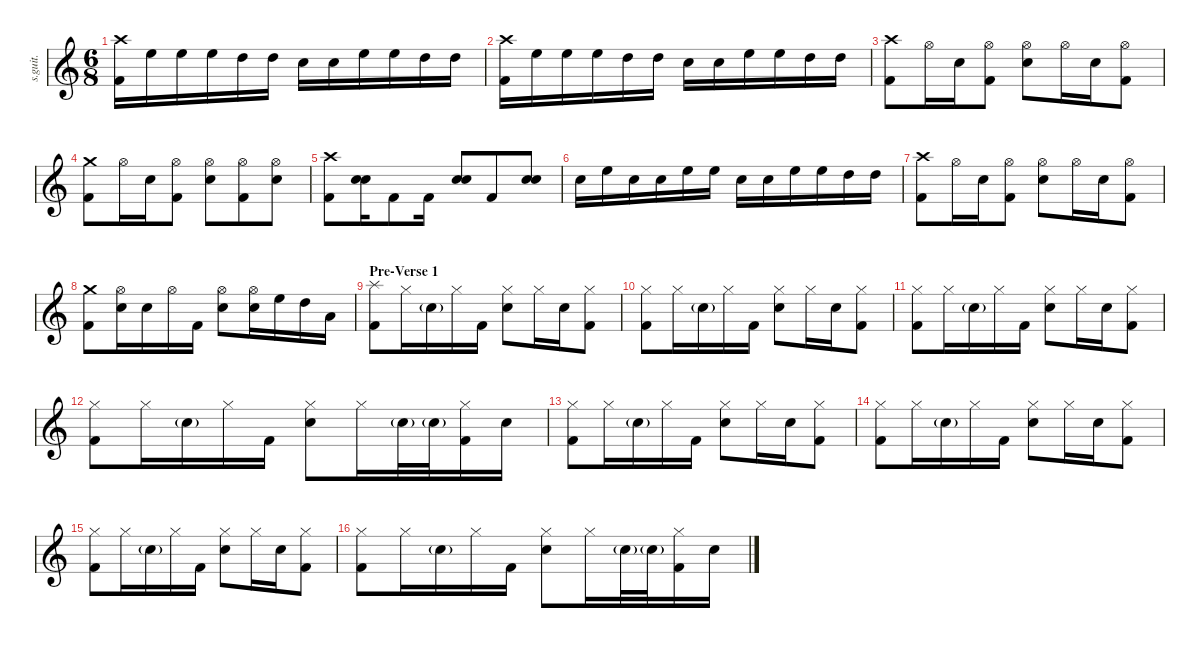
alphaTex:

\defaultSystemsLayout 4
\hideDynamics
\bracketExtendMode nobrackets
\track ("John Dolmayan" "s.guit.") {instrument percussion}
\staff {score}
\articulation defaults
\ts (6 8)
\tempo (121 hide)
\clef g2
\ks c
("Crash high (hit)" "Kick (hit) 2").16{lyrics (0 "") lyrics (1 "") lyrics (2 "") lyrics (3 "") lyrics (4 "") dy f} "High Floor Tom (hit)".16{lyrics (0 "") lyrics (1 "") lyrics (2 "") lyrics (3 "") lyrics (4 "")} "High Floor Tom (hit)".16{lyrics (0 "") lyrics (1 "") lyrics (2 "") lyrics (3 "") lyrics (4 "")} "High Floor Tom (hit)".16{lyrics (0 "") lyrics (1 "") lyrics (2 "") lyrics (3 "") lyrics (4 "")} "High Tom (hit)".16{lyrics (0 "") lyrics (1 "") lyrics (2 "") lyrics (3 "") lyrics (4 "")} "High Tom (hit)".16{lyrics (0 "") lyrics (1 "") lyrics (2 "") lyrics (3 "") lyrics (4 "")} "Snare (hit) 2".16{lyrics (0 "") lyrics (1 "") lyrics (2 "") lyrics (3 "") lyrics (4 "")} "Snare (hit) 2".16{lyrics (0 "") lyrics (1 "") lyrics (2 "") lyrics (3 "") lyrics (4 "")} "High Floor Tom (hit)".16{lyrics (0 "") lyrics (1 "") lyrics (2 "") lyrics (3 "") lyrics (4 "")} "High Floor Tom (hit)".16{lyrics (0 "") lyrics (1 "") lyrics (2 "") lyrics (3 "") lyrics (4 "")} "High Tom (hit)".16{lyrics (0 "") lyrics (1 "") lyrics (2 "") lyrics (3 "") lyrics (4 "")} "High Tom (hit)".16{lyrics (0 "") lyrics (1 "") lyrics (2 "") lyrics (3 "") lyrics (4 "")} |
("Crash high (hit)" "Kick (hit) 2").16{lyrics (0 "") lyrics (1 "") lyrics (2 "") lyrics (3 "") lyrics (4 "")} "High Floor Tom (hit)".16{lyrics (0 "") lyrics (1 "") lyrics (2 "") lyrics (3 "") lyrics (4 "")} "High Floor Tom (hit)".16{lyrics (0 "") lyrics (1 "") lyrics (2 "") lyrics (3 "") lyrics (4 "")} "High Floor Tom (hit)".16{lyrics (0 "") lyrics (1 "") lyrics (2 "") lyrics (3 "") lyrics (4 "")} "High Tom (hit)".16{lyrics (0 "") lyrics (1 "") lyrics (2 "") lyrics (3 "") lyrics (4 "")} "High Tom (hit)".16{lyrics (0 "") lyrics (1 "") lyrics (2 "") lyrics (3 "") lyrics (4 "")} "Snare (hit) 2".16{lyrics (0 "") lyrics (1 "") lyrics (2 "") lyrics (3 "") lyrics (4 "")} "Snare (hit) 2".16{lyrics (0 "") lyrics (1 "") lyrics (2 "") lyrics (3 "") lyrics (4 "")} "High Floor Tom (hit)".16{lyrics (0 "") lyrics (1 "") lyrics (2 "") lyrics (3 "") lyrics (4 "")} "High Floor Tom (hit)".16{lyrics (0 "") lyrics (1 "") lyrics (2 "") lyrics (3 "") lyrics (4 "")} "High Tom (hit)".16{lyrics (0 "") lyrics (1 "") lyrics (2 "") lyrics (3 "") lyrics (4 "")} "High Tom (hit)".16{lyrics (0 "") lyrics (1 "") lyrics (2 "") lyrics (3 "") lyrics (4 "")} |
("Crash high (hit)" "Kick (hit) 2").8{lyrics (0 "") lyrics (1 "") lyrics (2 "") lyrics (3 "") lyrics (4 "")} "Hi-Hat (open)".16{lyrics (0 "") lyrics (1 "") lyrics (2 "") lyrics (3 "") lyrics (4 "")} "Snare (hit) 2".16{lyrics (0 "") lyrics (1 "") lyrics (2 "") lyrics (3 "") lyrics (4 "")} ("Hi-Hat (open)" "Kick (hit) 2").8{lyrics (0 "") lyrics (1 "") lyrics (2 "") lyrics (3 "") lyrics (4 "")} ("Hi-Hat (open)" "Snare (hit) 2").8{lyrics (0 "") lyrics (1 "") lyrics (2 "") lyrics (3 "") lyrics (4 "")} "Hi-Hat (open)".16{lyrics (0 "") lyrics (1 "") lyrics (2 "") lyrics (3 "") lyrics (4 "")} "Snare (hit) 2".16{lyrics (0 "") lyrics (1 "") lyrics (2 "") lyrics (3 "") lyrics (4 "")} ("Hi-Hat (open)" "Kick (hit) 2").8{lyrics (0 "") lyrics (1 "") lyrics (2 "") lyrics (3 "") lyrics (4 "")} |
("Crash medium (hit)" "Kick (hit) 2").8{lyrics (0 "") lyrics (1 "") lyrics (2 "") lyrics (3 "") lyrics (4 "")} "Hi-Hat (open)".16{lyrics (0 "") lyrics (1 "") lyrics (2 "") lyrics (3 "") lyrics (4 "")} "Snare (hit) 2".16{lyrics (0 "") lyrics (1 "") lyrics (2 "") lyrics (3 "") lyrics (4 "")} ("Hi-Hat (open)" "Kick (hit) 2").8{lyrics (0 "") lyrics (1 "") lyrics (2 "") lyrics (3 "") lyrics (4 "")} ("Hi-Hat (open)" "Snare (hit) 2").8{lyrics (0 "") lyrics (1 "") lyrics (2 "") lyrics (3 "") lyrics (4 "")} ("Hi-Hat (open)" "Kick (hit) 2").8{lyrics (0 "") lyrics (1 "") lyrics (2 "") lyrics (3 "") lyrics (4 "")} ("Hi-Hat (open)" "Snare (hit) 2").8{lyrics (0 "") lyrics (1 "") lyrics (2 "") lyrics (3 "") lyrics (4 "")} |
("Crash high (hit)" "Kick (hit) 2").8{lyrics (0 "") lyrics (1 "") lyrics (2 "") lyrics (3 "") lyrics (4 "")} ("Snare (hit) 2" "Snare (hit) 2").16{bu 30 lyrics (0 "") lyrics (1 "") lyrics (2 "") lyrics (3 "") lyrics (4 "")} "Kick (hit) 2".8{lyrics (0 "") lyrics (1 "") lyrics (2 "") lyrics (3 "") lyrics (4 "")} "Kick (hit) 2".16{lyrics (0 "") lyrics (1 "") lyrics (2 "") lyrics (3 "") lyrics (4 "")} ("Snare (hit) 2" "Snare (hit) 2").8{bu 30 lyrics (0 "") lyrics (1 "") lyrics (2 "") lyrics (3 "") lyrics (4 "")} "Kick (hit) 2".8{lyrics (0 "") lyrics (1 "") lyrics (2 "") lyrics (3 "") lyrics (4 "")} ("Snare (hit) 2" "Snare (hit) 2").8{bu 30 lyrics (0 "") lyrics (1 "") lyrics (2 "") lyrics (3 "") lyrics (4 "")} |
"Snare (hit) 2".16{lyrics (0 "") lyrics (1 "") lyrics (2 "") lyrics (3 "") lyrics (4 "")} "High Floor Tom (hit)".16{lyrics (0 "") lyrics (1 "") lyrics (2 "") lyrics (3 "") lyrics (4 "")} "Snare (hit) 2".16{lyrics (0 "") lyrics (1 "") lyrics (2 "") lyrics (3 "") lyrics (4 "")} "Snare (hit) 2".16{lyrics (0 "") lyrics (1 "") lyrics (2 "") lyrics (3 "") lyrics (4 "")} "High Floor Tom (hit)".16{lyrics (0 "") lyrics (1 "") lyrics (2 "") lyrics (3 "") lyrics (4 "")} "High Floor Tom (hit)".16{lyrics (0 "") lyrics (1 "") lyrics (2 "") lyrics (3 "") lyrics (4 "")} "Snare (hit) 2".16{lyrics (0 "") lyrics (1 "") lyrics (2 "") lyrics (3 "") lyrics (4 "")} "Snare (hit) 2".16{lyrics (0 "") lyrics (1 "") lyrics (2 "") lyrics (3 "") lyrics (4 "")} "High Floor Tom (hit)".16{lyrics (0 "") lyrics (1 "") lyrics (2 "") lyrics (3 "") lyrics (4 "")} "High Floor Tom (hit)".16{lyrics (0 "") lyrics (1 "") lyrics (2 "") lyrics (3 "") lyrics (4 "")} "High Tom (hit)".16{lyrics (0 "") lyrics (1 "") lyrics (2 "") lyrics (3 "") lyrics (4 "")} "High Tom (hit)".16{lyrics (0 "") lyrics (1 "") lyrics (2 "") lyrics (3 "") lyrics (4 "")} |
("Crash high (hit)" "Kick (hit) 2").8{lyrics (0 "") lyrics (1 "") lyrics (2 "") lyrics (3 "") lyrics (4 "")} "Hi-Hat (open)".16{lyrics (0 "") lyrics (1 "") lyrics (2 "") lyrics (3 "") lyrics (4 "")} "Snare (hit) 2".16{lyrics (0 "") lyrics (1 "") lyrics (2 "") lyrics (3 "") lyrics (4 "")} ("Hi-Hat (open)" "Kick (hit) 2").8{lyrics (0 "") lyrics (1 "") lyrics (2 "") lyrics (3 "") lyrics (4 "")} ("Hi-Hat (open)" "Snare (hit) 2").8{lyrics (0 "") lyrics (1 "") lyrics (2 "") lyrics (3 "") lyrics (4 "")} "Hi-Hat (open)".16{lyrics (0 "") lyrics (1 "") lyrics (2 "") lyrics (3 "") lyrics (4 "")} "Snare (hit) 2".16{lyrics (0 "") lyrics (1 "") lyrics (2 "") lyrics (3 "") lyrics (4 "")} ("Hi-Hat (open)" "Kick (hit) 2").8{lyrics (0 "") lyrics (1 "") lyrics (2 "") lyrics (3 "") lyrics (4 "")} |
("Crash medium (hit)" "Kick (hit) 2").8{lyrics (0 "") lyrics (1 "") lyrics (2 "") lyrics (3 "") lyrics (4 "")} ("Hi-Hat (open)" "Snare (hit) 2").16{lyrics (0 "") lyrics (1 "") lyrics (2 "") lyrics (3 "") lyrics (4 "")} "Snare (hit) 2".16{lyrics (0 "") lyrics (1 "") lyrics (2 "") lyrics (3 "") lyrics (4 "")} "Hi-Hat (open)".16{lyrics (0 "") lyrics (1 "") lyrics (2 "") lyrics (3 "") lyrics (4 "")} "Kick (hit) 2".16{lyrics (0 "") lyrics (1 "") lyrics (2 "") lyrics (3 "") lyrics (4 "")} ("Hi-Hat (open)" "Snare (hit) 2").8{lyrics (0 "") lyrics (1 "") lyrics (2 "") lyrics (3 "") lyrics (4 "")} ("Hi-Hat (open)" "Snare (hit) 2").16{lyrics (0 "") lyrics (1 "") lyrics (2 "") lyrics (3 "") lyrics (4 "")} "High Floor Tom (hit)".16{lyrics (0 "") lyrics (1 "") lyrics (2 "") lyrics (3 "") lyrics (4 "")} "High Tom (hit)".16{lyrics (0 "") lyrics (1 "") lyrics (2 "") lyrics (3 "") lyrics (4 "")} "Low Tom (hit)".16{lyrics (0 "") lyrics (1 "") lyrics (2 "") lyrics (3 "") lyrics (4 "")} |
\section ("" "Pre-Verse 1")
\tempo (115 hide)
("Splash (hit)" "Kick (hit) 2").8{lyrics (0 "") lyrics (1 "") lyrics (2 "") lyrics (3 "") lyrics (4 "")} "Hi-Hat (closed)".16{lyrics (0 "") lyrics (1 "") lyrics (2 "") lyrics (3 "") lyrics (4 "")} "Snare (hit) 2"{g}.16{lyrics (0 "") lyrics (1 "") lyrics (2 "") lyrics (3 "") lyrics (4 "") dy ff} "Hi-Hat (closed)".16{lyrics (0 "") lyrics (1 "") lyrics (2 "") lyrics (3 "") lyrics (4 "") dy f} "Kick (hit) 2".16{lyrics (0 "") lyrics (1 "") lyrics (2 "") lyrics (3 "") lyrics (4 "")} ("Hi-Hat (closed)" "Snare (hit) 2").8{lyrics (0 "") lyrics (1 "") lyrics (2 "") lyrics (3 "") lyrics (4 "")} "Hi-Hat (closed)".16{lyrics (0 "") lyrics (1 "") lyrics (2 "") lyrics (3 "") lyrics (4 "")} "Snare (hit) 2".16{lyrics (0 "") lyrics (1 "") lyrics (2 "") lyrics (3 "") lyrics (4 "")} ("Hi-Hat (closed)" "Kick (hit) 2").8{lyrics (0 "") lyrics (1 "") lyrics (2 "") lyrics (3 "") lyrics (4 "")} |
("Hi-Hat (closed)" "Kick (hit) 2").8{lyrics (0 "") lyrics (1 "") lyrics (2 "") lyrics (3 "") lyrics (4 "")} "Hi-Hat (closed)".16{lyrics (0 "") lyrics (1 "") lyrics (2 "") lyrics (3 "") lyrics (4 "")} "Snare (hit) 2"{g}.16{lyrics (0 "") lyrics (1 "") lyrics (2 "") lyrics (3 "") lyrics (4 "") dy ff} "Hi-Hat (closed)".16{lyrics (0 "") lyrics (1 "") lyrics (2 "") lyrics (3 "") lyrics (4 "") dy f} "Kick (hit) 2".16{lyrics (0 "") lyrics (1 "") lyrics (2 "") lyrics (3 "") lyrics (4 "")} ("Hi-Hat (closed)" "Snare (hit) 2").8{lyrics (0 "") lyrics (1 "") lyrics (2 "") lyrics (3 "") lyrics (4 "")} "Hi-Hat (closed)".16{lyrics (0 "") lyrics (1 "") lyrics (2 "") lyrics (3 "") lyrics (4 "")} "Snare (hit) 2".16{lyrics (0 "") lyrics (1 "") lyrics (2 "") lyrics (3 "") lyrics (4 "")} ("Hi-Hat (closed)" "Kick (hit) 2").8{lyrics (0 "") lyrics (1 "") lyrics (2 "") lyrics (3 "") lyrics (4 "")} |
("Hi-Hat (closed)" "Kick (hit) 2").8{lyrics (0 "") lyrics (1 "") lyrics (2 "") lyrics (3 "") lyrics (4 "")} "Hi-Hat (closed)".16{lyrics (0 "") lyrics (1 "") lyrics (2 "") lyrics (3 "") lyrics (4 "")} "Snare (hit) 2"{g}.16{lyrics (0 "") lyrics (1 "") lyrics (2 "") lyrics (3 "") lyrics (4 "") dy ff} "Hi-Hat (closed)".16{lyrics (0 "") lyrics (1 "") lyrics (2 "") lyrics (3 "") lyrics (4 "") dy f} "Kick (hit) 2".16{lyrics (0 "") lyrics (1 "") lyrics (2 "") lyrics (3 "") lyrics (4 "")} ("Hi-Hat (closed)" "Snare (hit) 2").8{lyrics (0 "") lyrics (1 "") lyrics (2 "") lyrics (3 "") lyrics (4 "")} "Hi-Hat (closed)".16{lyrics (0 "") lyrics (1 "") lyrics (2 "") lyrics (3 "") lyrics (4 "")} "Snare (hit) 2".16{lyrics (0 "") lyrics (1 "") lyrics (2 "") lyrics (3 "") lyrics (4 "")} ("Hi-Hat (closed)" "Kick (hit) 2").8{lyrics (0 "") lyrics (1 "") lyrics (2 "") lyrics (3 "") lyrics (4 "")} |
("Hi-Hat (closed)" "Kick (hit) 2").8{lyrics (0 "") lyrics (1 "") lyrics (2 "") lyrics (3 "") lyrics (4 "")} "Hi-Hat (closed)".16{lyrics (0 "") lyrics (1 "") lyrics (2 "") lyrics (3 "") lyrics (4 "")} "Snare (hit) 2"{g}.16{lyrics (0 "") lyrics (1 "") lyrics (2 "") lyrics (3 "") lyrics (4 "") dy ff} "Hi-Hat (closed)".16{lyrics (0 "") lyrics (1 "") lyrics (2 "") lyrics (3 "") lyrics (4 "") dy f} "Kick (hit) 2".16{lyrics (0 "") lyrics (1 "") lyrics (2 "") lyrics (3 "") lyrics (4 "")} ("Hi-Hat (closed)" "Snare (hit) 2").8{lyrics (0 "") lyrics (1 "") lyrics (2 "") lyrics (3 "") lyrics (4 "")} "Hi-Hat (closed)".16{lyrics (0 "") lyrics (1 "") lyrics (2 "") lyrics (3 "") lyrics (4 "")} "Snare (hit) 2"{g}.32{lyrics (0 "") lyrics (1 "") lyrics (2 "") lyrics (3 "") lyrics (4 "") dy ff} "Snare (hit) 2"{g}.32{lyrics (0 "") lyrics (1 "") lyrics (2 "") lyrics (3 "") lyrics (4 "")} ("Hi-Hat (closed)" "Kick (hit) 2").16{lyrics (0 "") lyrics (1 "") lyrics (2 "") lyrics (3 "") lyrics (4 "") dy f} "Snare (hit) 2".16{lyrics (0 "") lyrics (1 "") lyrics (2 "") lyrics (3 "") lyrics (4 "")} |
("Hi-Hat (closed)" "Kick (hit) 2").8{lyrics (0 "") lyrics (1 "") lyrics (2 "") lyrics (3 "") lyrics (4 "")} "Hi-Hat (closed)".16{lyrics (0 "") lyrics (1 "") lyrics (2 "") lyrics (3 "") lyrics (4 "")} "Snare (hit) 2"{g}.16{lyrics (0 "") lyrics (1 "") lyrics (2 "") lyrics (3 "") lyrics (4 "") dy ff} "Hi-Hat (closed)".16{lyrics (0 "") lyrics (1 "") lyrics (2 "") lyrics (3 "") lyrics (4 "") dy f} "Kick (hit) 2".16{lyrics (0 "") lyrics (1 "") lyrics (2 "") lyrics (3 "") lyrics (4 "")} ("Hi-Hat (closed)" "Snare (hit) 2").8{lyrics (0 "") lyrics (1 "") lyrics (2 "") lyrics (3 "") lyrics (4 "")} "Hi-Hat (closed)".16{lyrics (0 "") lyrics (1 "") lyrics (2 "") lyrics (3 "") lyrics (4 "")} "Snare (hit) 2".16{lyrics (0 "") lyrics (1 "") lyrics (2 "") lyrics (3 "") lyrics (4 "")} ("Hi-Hat (closed)" "Kick (hit) 2").8{lyrics (0 "") lyrics (1 "") lyrics (2 "") lyrics (3 "") lyrics (4 "")} |
("Hi-Hat (closed)" "Kick (hit) 2").8{lyrics (0 "") lyrics (1 "") lyrics (2 "") lyrics (3 "") lyrics (4 "")} "Hi-Hat (closed)".16{lyrics (0 "") lyrics (1 "") lyrics (2 "") lyrics (3 "") lyrics (4 "")} "Snare (hit) 2"{g}.16{lyrics (0 "") lyrics (1 "") lyrics (2 "") lyrics (3 "") lyrics (4 "") dy ff} "Hi-Hat (closed)".16{lyrics (0 "") lyrics (1 "") lyrics (2 "") lyrics (3 "") lyrics (4 "") dy f} "Kick (hit) 2".16{lyrics (0 "") lyrics (1 "") lyrics (2 "") lyrics (3 "") lyrics (4 "")} ("Hi-Hat (closed)" "Snare (hit) 2").8{lyrics (0 "") lyrics (1 "") lyrics (2 "") lyrics (3 "") lyrics (4 "")} "Hi-Hat (closed)".16{lyrics (0 "") lyrics (1 "") lyrics (2 "") lyrics (3 "") lyrics (4 "")} "Snare (hit) 2".16{lyrics (0 "") lyrics (1 "") lyrics (2 "") lyrics (3 "") lyrics (4 "")} ("Hi-Hat (closed)" "Kick (hit) 2").8{lyrics (0 "") lyrics (1 "") lyrics (2 "") lyrics (3 "") lyrics (4 "")} |
("Hi-Hat (closed)" "Kick (hit) 2").8{lyrics (0 "") lyrics (1 "") lyrics (2 "") lyrics (3 "") lyrics (4 "")} "Hi-Hat (closed)".16{lyrics (0 "") lyrics (1 "") lyrics (2 "") lyrics (3 "") lyrics (4 "")} "Snare (hit) 2"{g}.16{lyrics (0 "") lyrics (1 "") lyrics (2 "") lyrics (3 "") lyrics (4 "") dy ff} "Hi-Hat (closed)".16{lyrics (0 "") lyrics (1 "") lyrics (2 "") lyrics (3 "") lyrics (4 "") dy f} "Kick (hit) 2".16{lyrics (0 "") lyrics (1 "") lyrics (2 "") lyrics (3 "") lyrics (4 "")} ("Hi-Hat (closed)" "Snare (hit) 2").8{lyrics (0 "") lyrics (1 "") lyrics (2 "") lyrics (3 "") lyrics (4 "")} "Hi-Hat (closed)".16{lyrics (0 "") lyrics (1 "") lyrics (2 "") lyrics (3 "") lyrics (4 "")} "Snare (hit) 2".16{lyrics (0 "") lyrics (1 "") lyrics (2 "") lyrics (3 "") lyrics (4 "")} ("Hi-Hat (closed)" "Kick (hit) 2").8{lyrics (0 "") lyrics (1 "") lyrics (2 "") lyrics (3 "") lyrics (4 "")} |
("Hi-Hat (closed)" "Kick (hit) 2").8{lyrics (0 "") lyrics (1 "") lyrics (2 "") lyrics (3 "") lyrics (4 "")} "Hi-Hat (closed)".16{lyrics (0 "") lyrics (1 "") lyrics (2 "") lyrics (3 "") lyrics (4 "")} "Snare (hit) 2"{g}.16{lyrics (0 "") lyrics (1 "") lyrics (2 "") lyrics (3 "") lyrics (4 "") dy ff} "Hi-Hat (closed)".16{lyrics (0 "") lyrics (1 "") lyrics (2 "") lyrics (3 "") lyrics (4 "") dy f} "Kick (hit) 2".16{lyrics (0 "") lyrics (1 "") lyrics (2 "") lyrics (3 "") lyrics (4 "")} ("Hi-Hat (closed)" "Snare (hit) 2").8{lyrics (0 "") lyrics (1 "") lyrics (2 "") lyrics (3 "") lyrics (4 "")} "Hi-Hat (closed)".16{lyrics (0 "") lyrics (1 "") lyrics (2 "") lyrics (3 "") lyrics (4 "")} "Snare (hit) 2"{g}.32{lyrics (0 "") lyrics (1 "") lyrics (2 "") lyrics (3 "") lyrics (4 "") dy ff} "Snare (hit) 2"{g}.32{lyrics (0 "") lyrics (1 "") lyrics (2 "") lyrics (3 "") lyrics (4 "")} ("Hi-Hat (closed)" "Kick (hit) 2").16{lyrics (0 "") lyrics (1 "") lyrics (2 "") lyrics (3 "") lyrics (4 "") dy f} "Snare (hit) 2".16{lyrics (0 "") lyrics (1 "") lyrics (2 "") lyrics (3 "") lyrics (4 "")}
